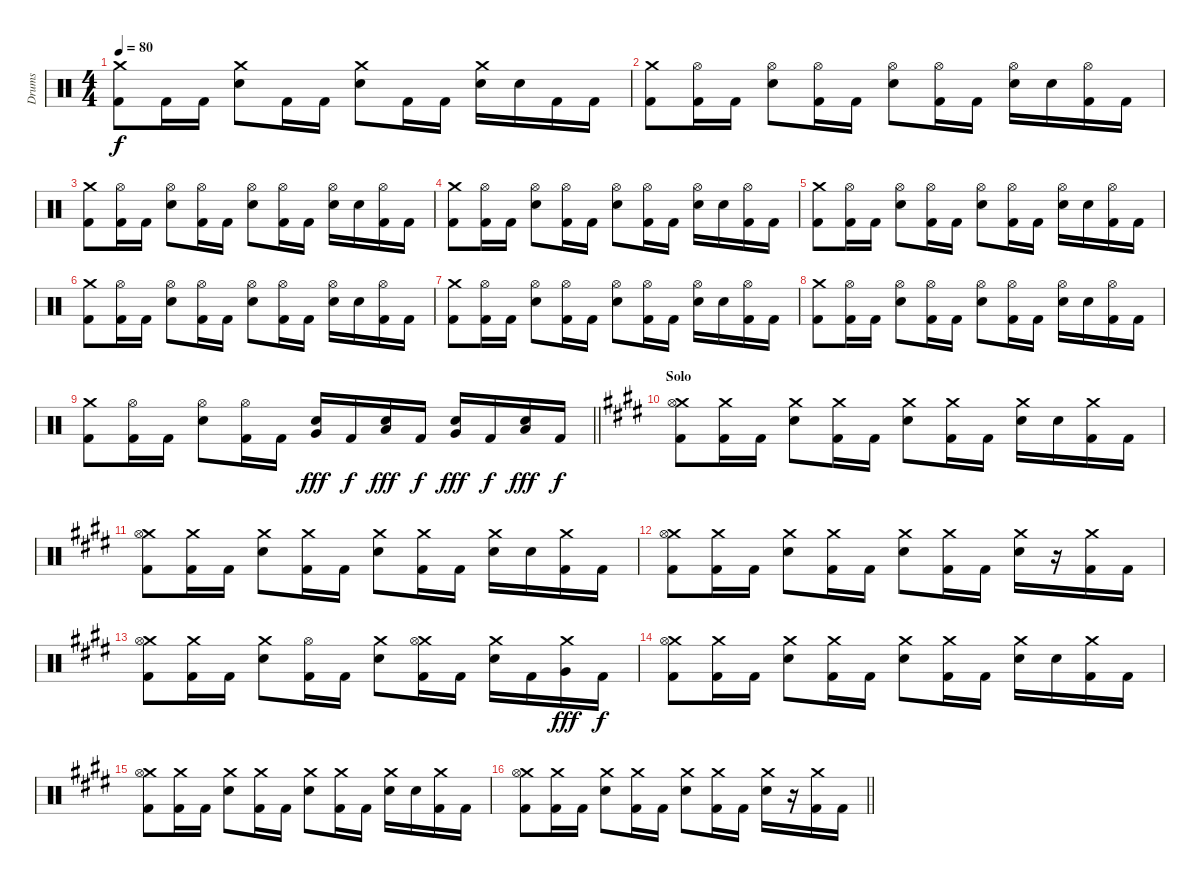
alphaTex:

\track ("Drums" "Drums") {instrument percussion}
\staff {score}
\articulation defaults
\ts (4 4)
\tempo 80
\clef neutral
\ks c
("Crash medium (hit)" "Kick (hit) 2").8{dy f} "Kick (hit) 2".16 "Kick (hit) 2".16 ("Crash medium (hit)" "Snare (hit) 2").8 "Kick (hit) 2".16 "Kick (hit) 2".16 ("Crash medium (hit)" "Snare (hit) 2").8 "Kick (hit) 2".16 "Kick (hit) 2".16 ("Crash medium (hit)" "Snare (hit) 2").16 "Snare (hit) 2".16 "Kick (hit) 2".16 "Kick (hit) 2".16 |
("Crash medium (hit)" "Kick (hit) 2").8 ("Hi-Hat (open)" "Kick (hit) 2").16 "Kick (hit) 2".16 ("Hi-Hat (open)" "Snare (hit) 2").8 ("Hi-Hat (open)" "Kick (hit) 2").16 "Kick (hit) 2".16 ("Hi-Hat (open)" "Snare (hit) 2").8 ("Hi-Hat (open)" "Kick (hit) 2").16 "Kick (hit) 2".16 ("Hi-Hat (open)" "Snare (hit) 2").16 "Snare (hit) 2".16 ("Hi-Hat (open)" "Kick (hit) 2").16 "Kick (hit) 2".16 |
("Crash medium (hit)" "Kick (hit) 2").8 ("Hi-Hat (open)" "Kick (hit) 2").16 "Kick (hit) 2".16 ("Hi-Hat (open)" "Snare (hit) 2").8 ("Hi-Hat (open)" "Kick (hit) 2").16 "Kick (hit) 2".16 ("Hi-Hat (open)" "Snare (hit) 2").8 ("Hi-Hat (open)" "Kick (hit) 2").16 "Kick (hit) 2".16 ("Hi-Hat (open)" "Snare (hit) 2").16 "Snare (hit) 2".16 ("Hi-Hat (open)" "Kick (hit) 2").16 "Kick (hit) 2".16 |
("Crash medium (hit)" "Kick (hit) 2").8 ("Hi-Hat (open)" "Kick (hit) 2").16 "Kick (hit) 2".16 ("Hi-Hat (open)" "Snare (hit) 2").8 ("Hi-Hat (open)" "Kick (hit) 2").16 "Kick (hit) 2".16 ("Hi-Hat (open)" "Snare (hit) 2").8 ("Hi-Hat (open)" "Kick (hit) 2").16 "Kick (hit) 2".16 ("Hi-Hat (open)" "Snare (hit) 2").16 "Snare (hit) 2".16 ("Hi-Hat (open)" "Kick (hit) 2").16 "Kick (hit) 2".16 |
("Crash medium (hit)" "Kick (hit) 2").8 ("Hi-Hat (open)" "Kick (hit) 2").16 "Kick (hit) 2".16 ("Hi-Hat (open)" "Snare (hit) 2").8 ("Hi-Hat (open)" "Kick (hit) 2").16 "Kick (hit) 2".16 ("Hi-Hat (open)" "Snare (hit) 2").8 ("Hi-Hat (open)" "Kick (hit) 2").16 "Kick (hit) 2".16 ("Hi-Hat (open)" "Snare (hit) 2").16 "Snare (hit) 2".16 ("Hi-Hat (open)" "Kick (hit) 2").16 "Kick (hit) 2".16 |
("Crash medium (hit)" "Kick (hit) 2").8 ("Hi-Hat (open)" "Kick (hit) 2").16 "Kick (hit) 2".16 ("Hi-Hat (open)" "Snare (hit) 2").8 ("Hi-Hat (open)" "Kick (hit) 2").16 "Kick (hit) 2".16 ("Hi-Hat (open)" "Snare (hit) 2").8 ("Hi-Hat (open)" "Kick (hit) 2").16 "Kick (hit) 2".16 ("Hi-Hat (open)" "Snare (hit) 2").16 "Snare (hit) 2".16 ("Hi-Hat (open)" "Kick (hit) 2").16 "Kick (hit) 2".16 |
("Crash medium (hit)" "Kick (hit) 2").8 ("Hi-Hat (open)" "Kick (hit) 2").16 "Kick (hit) 2".16 ("Hi-Hat (open)" "Snare (hit) 2").8 ("Hi-Hat (open)" "Kick (hit) 2").16 "Kick (hit) 2".16 ("Hi-Hat (open)" "Snare (hit) 2").8 ("Hi-Hat (open)" "Kick (hit) 2").16 "Kick (hit) 2".16 ("Hi-Hat (open)" "Snare (hit) 2").16 "Snare (hit) 2".16 ("Hi-Hat (open)" "Kick (hit) 2").16 "Kick (hit) 2".16 |
("Crash medium (hit)" "Kick (hit) 2").8 ("Hi-Hat (open)" "Kick (hit) 2").16 "Kick (hit) 2".16 ("Hi-Hat (open)" "Snare (hit) 2").8 ("Hi-Hat (open)" "Kick (hit) 2").16 "Kick (hit) 2".16 ("Hi-Hat (open)" "Snare (hit) 2").8 ("Hi-Hat (open)" "Kick (hit) 2").16 "Kick (hit) 2".16 ("Hi-Hat (open)" "Snare (hit) 2").16 "Snare (hit) 2".16 ("Hi-Hat (open)" "Kick (hit) 2").16 "Kick (hit) 2".16 |
\barLineRight lightlight
("Crash medium (hit)" "Kick (hit) 2").8 ("Hi-Hat (open)" "Kick (hit) 2").16 "Kick (hit) 2".16 ("Hi-Hat (open)" "Snare (hit) 2").8 ("Hi-Hat (open)" "Kick (hit) 2").16 "Kick (hit) 2".16 ("Very Low Tom (hit)" "Snare (hit) 2").16{dy fff} "Kick (hit) 2".16{dy f} ("Low Tom (hit)" "Snare (hit) 2").16{dy fff} "Kick (hit) 2".16{dy f} ("Very Low Tom (hit)" "Snare (hit) 2").16{dy fff} "Kick (hit) 2".16{dy f} ("Low Tom (hit)" "Snare (hit) 2").16{dy fff} "Kick (hit) 2".16{dy f} |
\section ("" "Solo")
\ks e
("Crash medium (hit)" "Hi-Hat (open)" "Kick (hit) 2").8 ("Crash medium (hit)" "Kick (hit) 2").16 "Kick (hit) 2".16 ("Crash medium (hit)" "Snare (hit) 2").8 ("Crash medium (hit)" "Kick (hit) 2").16 "Kick (hit) 2".16 ("Crash medium (hit)" "Snare (hit) 2").8 ("Crash medium (hit)" "Kick (hit) 2").16 "Kick (hit) 2".16 ("Crash medium (hit)" "Snare (hit) 2").16 "Snare (hit) 2".16 ("Crash medium (hit)" "Kick (hit) 2").16 "Kick (hit) 2".16 |
("Crash medium (hit)" "Hi-Hat (open)" "Kick (hit) 2").8 ("Crash medium (hit)" "Kick (hit) 2").16 "Kick (hit) 2".16 ("Crash medium (hit)" "Snare (hit) 2").8 ("Crash medium (hit)" "Kick (hit) 2").16 "Kick (hit) 2".16 ("Crash medium (hit)" "Snare (hit) 2").8 ("Crash medium (hit)" "Kick (hit) 2").16 "Kick (hit) 2".16 ("Crash medium (hit)" "Snare (hit) 2").16 "Snare (hit) 2".16 ("Crash medium (hit)" "Kick (hit) 2").16 "Kick (hit) 2".16 |
("Crash medium (hit)" "Hi-Hat (open)" "Kick (hit) 2").8 ("Crash medium (hit)" "Kick (hit) 2").16 "Kick (hit) 2".16 ("Crash medium (hit)" "Snare (hit) 2").8 ("Crash medium (hit)" "Kick (hit) 2").16 "Kick (hit) 2".16 ("Crash medium (hit)" "Snare (hit) 2").8 ("Crash medium (hit)" "Kick (hit) 2").16 "Kick (hit) 2".16 ("Crash medium (hit)" "Snare (hit) 2").16 r.16 ("Crash medium (hit)" "Kick (hit) 2").16 "Kick (hit) 2".16 |
("Crash medium (hit)" "Hi-Hat (open)" "Kick (hit) 2").8 ("Crash medium (hit)" "Kick (hit) 2").16 "Kick (hit) 2".16 ("Crash medium (hit)" "Snare (hit) 2").8 ("Hi-Hat (open)" "Kick (hit) 2").16 "Kick (hit) 2".16 ("Crash medium (hit)" "Snare (hit) 2").8 ("Crash medium (hit)" "Hi-Hat (open)" "Kick (hit) 2").16 "Kick (hit) 2".16 ("Crash medium (hit)" "Snare (hit) 2").16 "Kick (hit) 2".16 ("Crash medium (hit)" "Very Low Tom (hit)").16{dy fff} "Kick (hit) 2".16{dy f} |
("Crash medium (hit)" "Hi-Hat (open)" "Kick (hit) 2").8 ("Crash medium (hit)" "Kick (hit) 2").16 "Kick (hit) 2".16 ("Crash medium (hit)" "Snare (hit) 2").8 ("Crash medium (hit)" "Kick (hit) 2").16 "Kick (hit) 2".16 ("Crash medium (hit)" "Snare (hit) 2").8 ("Crash medium (hit)" "Kick (hit) 2").16 "Kick (hit) 2".16 ("Crash medium (hit)" "Snare (hit) 2").16 "Snare (hit) 2".16 ("Crash medium (hit)" "Kick (hit) 2").16 "Kick (hit) 2".16 |
("Crash medium (hit)" "Hi-Hat (open)" "Kick (hit) 2").8 ("Crash medium (hit)" "Kick (hit) 2").16 "Kick (hit) 2".16 ("Crash medium (hit)" "Snare (hit) 2").8 ("Crash medium (hit)" "Kick (hit) 2").16 "Kick (hit) 2".16 ("Crash medium (hit)" "Snare (hit) 2").8 ("Crash medium (hit)" "Kick (hit) 2").16 "Kick (hit) 2".16 ("Crash medium (hit)" "Snare (hit) 2").16 "Snare (hit) 2".16 ("Crash medium (hit)" "Kick (hit) 2").16 "Kick (hit) 2".16 |
\barLineRight lightlight
("Crash medium (hit)" "Hi-Hat (open)" "Kick (hit) 2").8 ("Crash medium (hit)" "Kick (hit) 2").16 "Kick (hit) 2".16 ("Crash medium (hit)" "Snare (hit) 2").8 ("Crash medium (hit)" "Kick (hit) 2").16 "Kick (hit) 2".16 ("Crash medium (hit)" "Snare (hit) 2").8 ("Crash medium (hit)" "Kick (hit) 2").16 "Kick (hit) 2".16 ("Crash medium (hit)" "Snare (hit) 2").16 r.16 ("Crash medium (hit)" "Kick (hit) 2").16 "Kick (hit) 2".16
